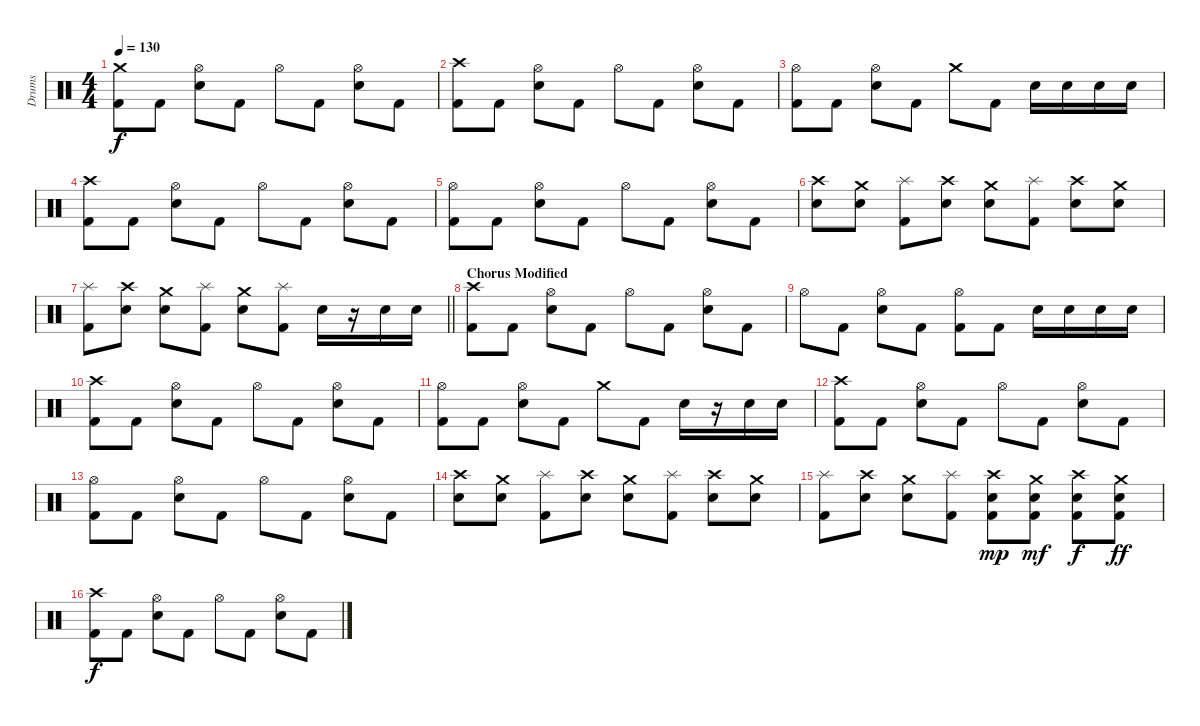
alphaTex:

\track ("Drums" "Drums") {instrument percussion}
\staff {score}
\articulation defaults
\ts (4 4)
\tempo 130
\clef neutral
\ks c
("Crash medium (hit)" "Kick (hit) 2").8{dy f} "Kick (hit) 2".8 ("Hi-Hat (open)" "Electric Snare (hit)").8 "Kick (hit) 2".8 "Hi-Hat (open)".8 "Kick (hit) 2".8 ("Hi-Hat (open)" "Electric Snare (hit)").8 "Kick (hit) 2".8 |
("Crash high (hit)" "Kick (hit) 2").8 "Kick (hit) 2".8 ("Hi-Hat (open)" "Electric Snare (hit)").8 "Kick (hit) 2".8 "Hi-Hat (open)".8 "Kick (hit) 2".8 ("Hi-Hat (open)" "Electric Snare (hit)").8 "Kick (hit) 2".8 |
("Hi-Hat (open)" "Kick (hit) 2").8 "Kick (hit) 2".8 ("Hi-Hat (open)" "Electric Snare (hit)").8 "Kick (hit) 2".8 "Crash medium (hit)".8 "Kick (hit) 2".8 "Electric Snare (hit)".16 "Electric Snare (hit)".16 "Electric Snare (hit)".16 "Electric Snare (hit)".16 |
("Crash high (hit)" "Kick (hit) 2").8 "Kick (hit) 2".8 ("Hi-Hat (open)" "Electric Snare (hit)").8 "Kick (hit) 2".8 "Hi-Hat (open)".8 "Kick (hit) 2".8 ("Hi-Hat (open)" "Electric Snare (hit)").8 "Kick (hit) 2".8 |
("Hi-Hat (open)" "Kick (hit) 2").8 "Kick (hit) 2".8 ("Hi-Hat (open)" "Electric Snare (hit)").8 "Kick (hit) 2".8 "Hi-Hat (open)".8 "Kick (hit) 2".8 ("Hi-Hat (open)" "Electric Snare (hit)").8 "Kick (hit) 2".8 |
("Crash high (hit)" "Electric Snare (hit)").8 ("Crash medium (hit)" "Electric Snare (hit)").8 ("Splash (hit)" "Kick (hit) 2").8 ("Crash high (hit)" "Electric Snare (hit)").8 ("Crash medium (hit)" "Electric Snare (hit)").8 ("Splash (hit)" "Kick (hit) 2").8 ("Crash high (hit)" "Electric Snare (hit)").8 ("Crash medium (hit)" "Electric Snare (hit)").8 |
\barLineRight lightlight
("Splash (hit)" "Kick (hit) 2").8 ("Crash high (hit)" "Electric Snare (hit)").8 ("Crash medium (hit)" "Electric Snare (hit)").8 ("Splash (hit)" "Kick (hit) 2").8 ("Crash medium (hit)" "Electric Snare (hit)").8 ("Splash (hit)" "Kick (hit) 2").8 "Electric Snare (hit)".16 r.16 "Electric Snare (hit)".16 "Electric Snare (hit)".16 |
\section ("" "Chorus Modified")
("Crash high (hit)" "Kick (hit) 2").8 "Kick (hit) 2".8 ("Hi-Hat (open)" "Electric Snare (hit)").8 "Kick (hit) 2".8 "Hi-Hat (open)".8 "Kick (hit) 2".8 ("Hi-Hat (open)" "Electric Snare (hit)").8 "Kick (hit) 2".8 |
"Hi-Hat (open)".8 "Kick (hit) 2".8 ("Hi-Hat (open)" "Electric Snare (hit)").8 "Kick (hit) 2".8 ("Hi-Hat (open)" "Kick (hit) 2").8 "Kick (hit) 2".8 "Electric Snare (hit)".16 "Electric Snare (hit)".16 "Electric Snare (hit)".16 "Electric Snare (hit)".16 |
("Crash high (hit)" "Kick (hit) 2").8 "Kick (hit) 2".8 ("Hi-Hat (open)" "Electric Snare (hit)").8 "Kick (hit) 2".8 "Hi-Hat (open)".8 "Kick (hit) 2".8 ("Hi-Hat (open)" "Electric Snare (hit)").8 "Kick (hit) 2".8 |
("Hi-Hat (open)" "Kick (hit) 2").8 "Kick (hit) 2".8 ("Hi-Hat (open)" "Electric Snare (hit)").8 "Kick (hit) 2".8 "Crash medium (hit)".8 "Kick (hit) 2".8 "Electric Snare (hit)".16 r.16 "Electric Snare (hit)".16 "Electric Snare (hit)".16 |
("Crash high (hit)" "Kick (hit) 2").8 "Kick (hit) 2".8 ("Hi-Hat (open)" "Electric Snare (hit)").8 "Kick (hit) 2".8 "Hi-Hat (open)".8 "Kick (hit) 2".8 ("Hi-Hat (open)" "Electric Snare (hit)").8 "Kick (hit) 2".8 |
("Hi-Hat (open)" "Kick (hit) 2").8 "Kick (hit) 2".8 ("Hi-Hat (open)" "Electric Snare (hit)").8 "Kick (hit) 2".8 "Hi-Hat (open)".8 "Kick (hit) 2".8 ("Hi-Hat (open)" "Electric Snare (hit)").8 "Kick (hit) 2".8 |
("Crash high (hit)" "Electric Snare (hit)").8 ("Crash medium (hit)" "Electric Snare (hit)").8 ("Splash (hit)" "Kick (hit) 2").8 ("Crash high (hit)" "Electric Snare (hit)").8 ("Crash medium (hit)" "Electric Snare (hit)").8 ("Splash (hit)" "Kick (hit) 2").8 ("Crash high (hit)" "Electric Snare (hit)").8 ("Crash medium (hit)" "Electric Snare (hit)").8 |
("Splash (hit)" "Kick (hit) 2").8 ("Crash high (hit)" "Electric Snare (hit)").8 ("Crash medium (hit)" "Electric Snare (hit)").8 ("Splash (hit)" "Kick (hit) 2").8 ("Crash high (hit)" "Electric Snare (hit)" "Kick (hit) 2").8{dy mp} ("Crash medium (hit)" "Electric Snare (hit)" "Kick (hit) 2").8{dy mf} ("Crash high (hit)" "Electric Snare (hit)" "Kick (hit) 2").8{dy f} ("Crash medium (hit)" "Electric Snare (hit)" "Kick (hit) 2").8{dy ff} |
("Crash high (hit)" "Kick (hit) 2").8{dy f} "Kick (hit) 2".8 ("Hi-Hat (open)" "Electric Snare (hit)").8 "Kick (hit) 2".8 "Hi-Hat (open)".8 "Kick (hit) 2".8 ("Hi-Hat (open)" "Electric Snare (hit)").8 "Kick (hit) 2".8
